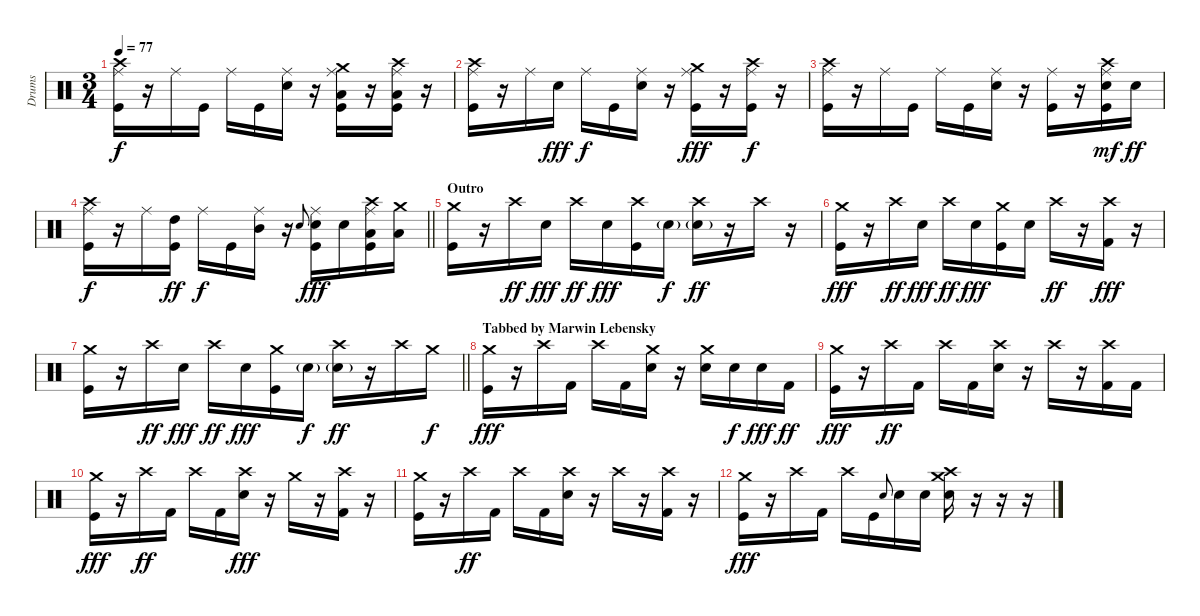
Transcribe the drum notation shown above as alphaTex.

\track ("Drums" "Drums") {instrument percussion}
\staff {score}
\articulation defaults
\ts (3 4)
\tempo 77
\clef neutral
\ks c
("Crash high (hit)" "Ride (middle)" "Kick (hit)").16{dy f} r.16 "Ride (middle)".16 "Kick (hit)".16 "Ride (middle)".16 "Kick (hit)".16 ("Electric Snare (hit)" "Ride (middle)").16 r.16 ("Kick (hit)" "Low Tom (hit)" "Crash medium (hit)" "Ride (middle)").16 r.16 ("Low Floor Tom (hit)" "Kick (hit)" "Crash high (hit)" "Ride (middle)").16 r.16 |
("Crash high (hit)" "Ride (middle)" "Kick (hit)").16 r.16 "Ride (middle)".16 "Electric Snare (hit)".16{dy fff} "Ride (middle)".16{dy f} "Kick (hit)".16 ("Electric Snare (hit)" "Ride (middle)").16 r.16 ("Kick (hit)" "Crash medium (hit)" "Ride (middle)").16{dy fff} r.16 ("Kick (hit)" "Crash high (hit)" "Ride (middle)").16{dy f} r.16 |
("Crash high (hit)" "Ride (middle)" "Kick (hit)").16 r.16 "Ride (middle)".16 "Kick (hit)".16 "Ride (middle)".16 "Kick (hit)".16 ("Electric Snare (hit)" "Ride (middle)").16 r.16 ("Kick (hit)" "Ride (middle)").16 r.16 ("Electric Snare (hit)" "Kick (hit)" "Crash high (hit)" "Ride (middle)").16{dy mf} "Electric Snare (hit)".16{dy ff} |
\barLineRight lightlight
("Crash high (hit)" "Ride (middle)" "Kick (hit)").16{dy f} r.16 "Ride (middle)".16 ("Kick (hit)" "High Tom (hit)").16{dy ff} "Ride (middle)".16{dy f} "Kick (hit)".16 ("Mid Tom (hit)" "Ride (middle)").16 r.16 "Electric Snare (hit)".8{gr onbeat} ("Kick (hit)" "Electric Snare (hit)" "Ride (middle)").16{dy fff} "Electric Snare (hit)".16 ("Low Tom (hit)" "Kick (hit)" "Crash high (hit)" "Ride (middle)").16 ("Low Floor Tom (hit)" "Crash medium (hit)").16 |
\section ("" "Outro")
("Kick (hit)" "Crash medium (hit)").16{volume 9} r.16 "Crash high (hit)".16{dy ff} "Electric Snare (hit)".16{dy fff} "Crash high (hit)".16{dy ff} "Electric Snare (hit)".16{dy fff} ("Crash high (hit)" "Kick (hit)").16 "Electric Snare (hit)"{g}.16{dy f} ("Crash high (hit)" "Electric Snare (hit)"{g}).16{dy ff} r.16 "Crash high (hit)".16 r.16 |
("Kick (hit)" "Crash medium (hit)").16{dy fff} r.16 "Crash high (hit)".16{dy ff} "Electric Snare (hit)".16{dy fff} "Crash high (hit)".16{dy ff} "Electric Snare (hit)".16{dy fff} ("Crash medium (hit)" "Kick (hit)").16 "Electric Snare (hit)".16 "Crash high (hit)".16{dy ff} r.16 ("Crash high (hit)" "Kick (hit) 2").16{dy fff} r.16 |
\barLineRight lightlight
("Kick (hit)" "Crash medium (hit)").16 r.16 "Crash high (hit)".16{dy ff} "Electric Snare (hit)".16{dy fff} "Crash high (hit)".16{dy ff} "Electric Snare (hit)".16{dy fff} ("Crash medium (hit)" "Kick (hit)").16 "Electric Snare (hit)"{g}.16{dy f} ("Crash high (hit)" "Electric Snare (hit)"{g}).16{dy ff} r.16 "Crash high (hit)".16 "Crash medium (hit)".16{dy f} |
\section ("" "Tabbed by Marwin Lebensky")
("Kick (hit)" "Crash medium (hit)").16{dy fff} r.16 "Crash high (hit)".16 "Kick (hit) 2".16 "Crash high (hit)".16 "Kick (hit) 2".16 ("Electric Snare (hit)" "Crash medium (hit)").16 r.16 ("Crash medium (hit)" "Electric Snare (hit)").16 "Electric Snare (hit)".16{dy f} "Electric Snare (hit)".16{dy fff} "Kick (hit) 2".16{dy ff} |
("Kick (hit)" "Crash medium (hit)").16{dy fff volume 9} r.16 "Crash high (hit)".16{dy ff} "Kick (hit) 2".16 "Crash high (hit)".16 "Kick (hit) 2".16 ("Crash high (hit)" "Electric Snare (hit)").16 r.16 "Crash high (hit)".16 r.16 ("Crash high (hit)" "Kick (hit) 2").16 "Kick (hit) 2".16 |
("Kick (hit)" "Crash medium (hit)").16{dy fff} r.16 "Crash high (hit)".16{dy ff} "Kick (hit) 2".16 "Crash high (hit)".16 "Kick (hit) 2".16 ("Electric Snare (hit)" "Crash high (hit)").16{dy fff} r.16 "Crash medium (hit)".16 r.16 ("Crash high (hit)" "Kick (hit) 2").16 r.16 |
("Kick (hit)" "Crash medium (hit)").16{volume 9} r.16 "Crash high (hit)".16{dy ff} "Kick (hit) 2".16 "Crash high (hit)".16 "Kick (hit) 2".16 ("Crash high (hit)" "Electric Snare (hit)").16 r.16 "Crash high (hit)".16 r.16 ("Crash high (hit)" "Kick (hit) 2").16 r.16 |
("Kick (hit)" "Crash medium (hit)").16{dy fff} r.16 "Crash high (hit)".16 "Kick (hit) 2".16 "Crash high (hit)".16 "Kick (hit)".16 "Electric Snare (hit)".8{gr onbeat} "Electric Snare (hit)".16 "Electric Snare (hit)".16 ("Electric Snare (hit)" "Crash high (hit)" "Crash medium (hit)").16 r.16 r.16 r.16
